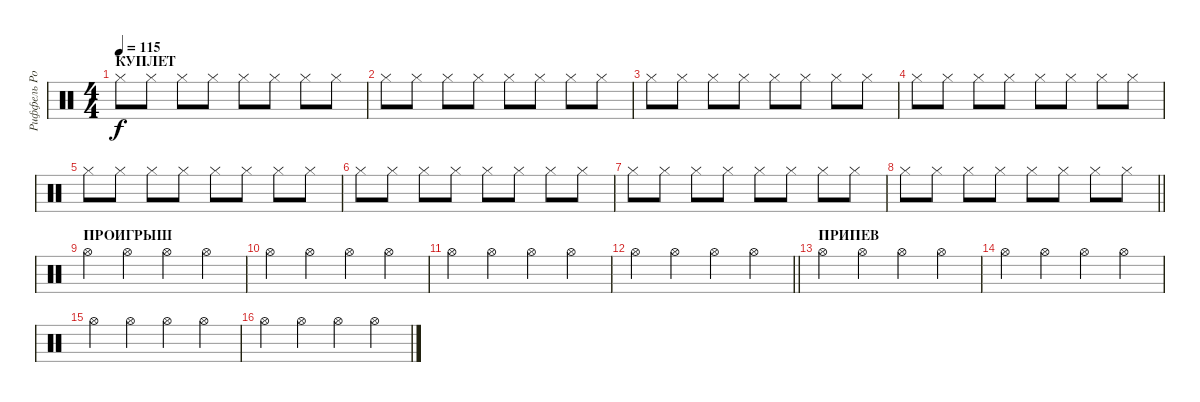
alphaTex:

\track ("Риффель Роман (хэты)" "Риффель Ро") {instrument percussion}
\staff {score}
\articulation defaults
\ts (4 4)
\section ("" "КУПЛЕТ")
\tempo 115
\clef neutral
\ks c "Hi-Hat (closed)".8{dy f} "Hi-Hat (closed)".8 "Hi-Hat (closed)".8 "Hi-Hat (closed)".8 "Hi-Hat (closed)".8 "Hi-Hat (closed)".8 "Hi-Hat (closed)".8 "Hi-Hat (closed)".8
|
"Hi-Hat (closed)".8 "Hi-Hat (closed)".8 "Hi-Hat (closed)".8 "Hi-Hat (closed)".8 "Hi-Hat (closed)".8 "Hi-Hat (closed)".8 "Hi-Hat (closed)".8 "Hi-Hat (closed)".8 |
"Hi-Hat (closed)".8 "Hi-Hat (closed)".8 "Hi-Hat (closed)".8 "Hi-Hat (closed)".8 "Hi-Hat (closed)".8 "Hi-Hat (closed)".8 "Hi-Hat (closed)".8 "Hi-Hat (closed)".8 |
"Hi-Hat (closed)".8 "Hi-Hat (closed)".8 "Hi-Hat (closed)".8 "Hi-Hat (closed)".8 "Hi-Hat (closed)".8 "Hi-Hat (closed)".8 "Hi-Hat (closed)".8 "Hi-Hat (closed)".8 |
"Hi-Hat (closed)".8 "Hi-Hat (closed)".8 "Hi-Hat (closed)".8 "Hi-Hat (closed)".8 "Hi-Hat (closed)".8 "Hi-Hat (closed)".8 "Hi-Hat (closed)".8 "Hi-Hat (closed)".8 |
"Hi-Hat (closed)".8 "Hi-Hat (closed)".8 "Hi-Hat (closed)".8 "Hi-Hat (closed)".8 "Hi-Hat (closed)".8 "Hi-Hat (closed)".8 "Hi-Hat (closed)".8 "Hi-Hat (closed)".8 |
"Hi-Hat (closed)".8 "Hi-Hat (closed)".8 "Hi-Hat (closed)".8 "Hi-Hat (closed)".8 "Hi-Hat (closed)".8 "Hi-Hat (closed)".8 "Hi-Hat (closed)".8 "Hi-Hat (closed)".8 |
\barLineRight lightlight "Hi-Hat (closed)".8 "Hi-Hat (closed)".8 "Hi-Hat (closed)".8 "Hi-Hat (closed)".8 "Hi-Hat (closed)".8 "Hi-Hat (closed)".8 "Hi-Hat (closed)".8 "Hi-Hat (closed)".8
|
\section ("" "ПРОИГРЫШ")
"Hi-Hat (open)".4 "Hi-Hat (open)".4 "Hi-Hat (open)".4 "Hi-Hat (open)".4 |
"Hi-Hat (open)".4 "Hi-Hat (open)".4 "Hi-Hat (open)".4 "Hi-Hat (open)".4 |
"Hi-Hat (open)".4 "Hi-Hat (open)".4 "Hi-Hat (open)".4 "Hi-Hat (open)".4 |
\barLineRight lightlight "Hi-Hat (open)".4 "Hi-Hat (open)".4 "Hi-Hat (open)".4 "Hi-Hat (open)".4
|
\section ("" "ПРИПЕВ")
"Hi-Hat (open)".4 "Hi-Hat (open)".4 "Hi-Hat (open)".4 "Hi-Hat (open)".4 |
"Hi-Hat (open)".4 "Hi-Hat (open)".4 "Hi-Hat (open)".4 "Hi-Hat (open)".4 |
"Hi-Hat (open)".4 "Hi-Hat (open)".4 "Hi-Hat (open)".4 "Hi-Hat (open)".4 |
"Hi-Hat (open)".4 "Hi-Hat (open)".4 "Hi-Hat (open)".4 "Hi-Hat (open)".4
